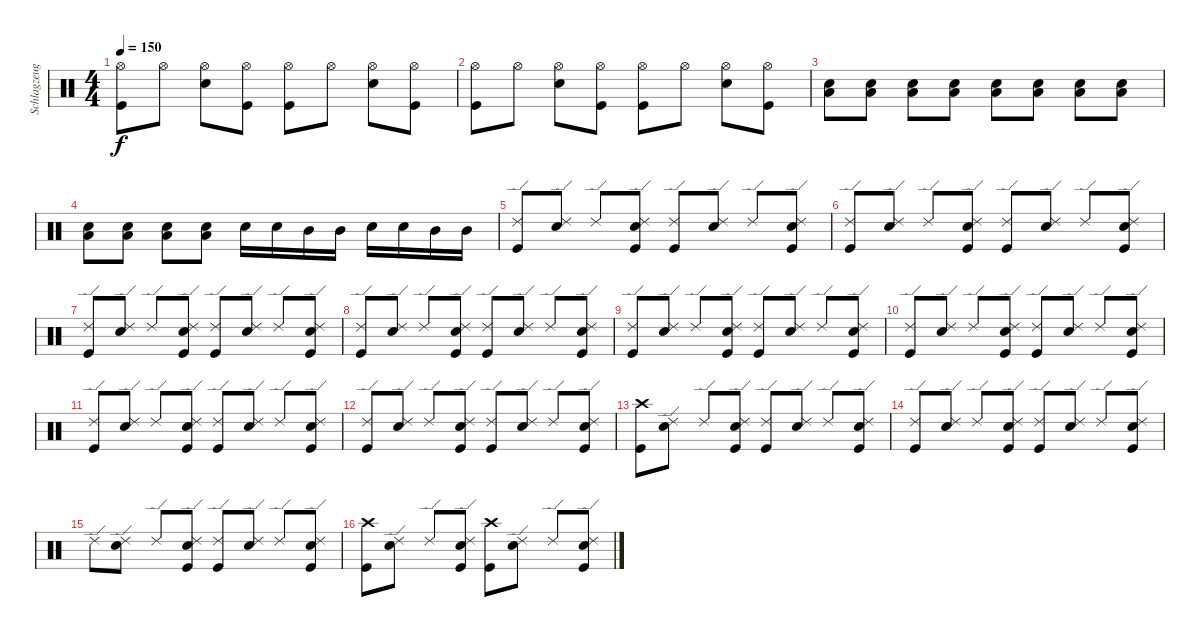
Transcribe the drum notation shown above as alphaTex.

\track ("Schlagzeug" "Schlagzeug") {instrument percussion}
\staff {score}
\articulation defaults
\ts (4 4)
\tempo 150
\clef neutral
\ks c
("Hi-Hat (open)" "Kick (hit)").8{dy f} "Hi-Hat (open)".8 ("Hi-Hat (open)" "Electric Snare (hit)").8 ("Hi-Hat (open)" "Kick (hit)").8 ("Hi-Hat (open)" "Kick (hit)").8 "Hi-Hat (open)".8 ("Hi-Hat (open)" "Electric Snare (hit)").8 ("Hi-Hat (open)" "Kick (hit)").8 |
("Hi-Hat (open)" "Kick (hit)").8 "Hi-Hat (open)".8 ("Hi-Hat (open)" "Electric Snare (hit)").8 ("Hi-Hat (open)" "Kick (hit)").8 ("Hi-Hat (open)" "Kick (hit)").8 "Hi-Hat (open)".8 ("Hi-Hat (open)" "Electric Snare (hit)").8 ("Hi-Hat (open)" "Kick (hit)").8 |
("Snare (hit) 2" "Low Tom (hit)").8 ("Snare (hit) 2" "Low Tom (hit)").8 ("Snare (hit) 2" "Low Tom (hit)").8 ("Snare (hit) 2" "Low Tom (hit)").8 ("Snare (hit) 2" "Low Tom (hit)").8 ("Snare (hit) 2" "Low Tom (hit)").8 ("Snare (hit) 2" "Low Tom (hit)").8 ("Snare (hit) 2" "Low Tom (hit)").8 |
("Snare (hit) 2" "Low Tom (hit)").8 ("Snare (hit) 2" "Low Tom (hit)").8 ("Snare (hit) 2" "Low Tom (hit)").8 ("Snare (hit) 2" "Low Tom (hit)").8 "Snare (hit) 2".16 "Snare (hit) 2".16 "Mid Tom (hit)".16 "Mid Tom (hit)".16 "Snare (hit) 2".16 "Snare (hit) 2".16 "Mid Tom (hit)".16 "Mid Tom (hit)".16 |
("Ride (edge) 2" "Kick (hit)").8 ("Ride (edge) 2" "Snare (hit) 2").8 "Ride (edge) 2".8 ("Ride (edge) 2" "Snare (hit) 2" "Kick (hit)").8 ("Ride (edge) 2" "Kick (hit)").8 ("Ride (edge) 2" "Snare (hit) 2").8 "Ride (edge) 2".8 ("Ride (edge) 2" "Snare (hit) 2" "Kick (hit)").8 |
("Ride (edge) 2" "Kick (hit)").8 ("Ride (edge) 2" "Snare (hit) 2").8 "Ride (edge) 2".8 ("Ride (edge) 2" "Snare (hit) 2" "Kick (hit)").8 ("Ride (edge) 2" "Kick (hit)").8 ("Ride (edge) 2" "Snare (hit) 2").8 "Ride (edge) 2".8 ("Ride (edge) 2" "Snare (hit) 2" "Kick (hit)").8 |
("Ride (edge) 2" "Kick (hit)").8 ("Ride (edge) 2" "Snare (hit) 2").8 "Ride (edge) 2".8 ("Ride (edge) 2" "Snare (hit) 2" "Kick (hit)").8 ("Ride (edge) 2" "Kick (hit)").8 ("Ride (edge) 2" "Snare (hit) 2").8 "Ride (edge) 2".8 ("Ride (edge) 2" "Snare (hit) 2" "Kick (hit)").8 |
("Ride (edge) 2" "Kick (hit)").8 ("Ride (edge) 2" "Snare (hit) 2").8 "Ride (edge) 2".8 ("Ride (edge) 2" "Snare (hit) 2" "Kick (hit)").8 ("Ride (edge) 2" "Kick (hit)").8 ("Ride (edge) 2" "Snare (hit) 2").8 "Ride (edge) 2".8 ("Ride (edge) 2" "Snare (hit) 2" "Kick (hit)").8 |
("Ride (edge) 2" "Kick (hit)").8 ("Ride (edge) 2" "Snare (hit) 2").8 "Ride (edge) 2".8 ("Ride (edge) 2" "Snare (hit) 2" "Kick (hit)").8 ("Ride (edge) 2" "Kick (hit)").8 ("Ride (edge) 2" "Snare (hit) 2").8 "Ride (edge) 2".8 ("Ride (edge) 2" "Snare (hit) 2" "Kick (hit)").8 |
("Ride (edge) 2" "Kick (hit)").8 ("Ride (edge) 2" "Snare (hit) 2").8 "Ride (edge) 2".8 ("Ride (edge) 2" "Snare (hit) 2" "Kick (hit)").8 ("Ride (edge) 2" "Kick (hit)").8 ("Ride (edge) 2" "Snare (hit) 2").8 "Ride (edge) 2".8 ("Ride (edge) 2" "Snare (hit) 2" "Kick (hit)").8 |
("Ride (edge) 2" "Kick (hit)").8 ("Ride (edge) 2" "Snare (hit) 2").8 "Ride (edge) 2".8 ("Ride (edge) 2" "Snare (hit) 2" "Kick (hit)").8 ("Ride (edge) 2" "Kick (hit)").8 ("Ride (edge) 2" "Snare (hit) 2").8 "Ride (edge) 2".8 ("Ride (edge) 2" "Snare (hit) 2" "Kick (hit)").8 |
("Ride (edge) 2" "Kick (hit)").8 ("Ride (edge) 2" "Snare (hit) 2").8 "Ride (edge) 2".8 ("Ride (edge) 2" "Snare (hit) 2" "Kick (hit)").8 ("Ride (edge) 2" "Kick (hit)").8 ("Ride (edge) 2" "Snare (hit) 2").8 "Ride (edge) 2".8 ("Ride (edge) 2" "Snare (hit) 2" "Kick (hit)").8 |
("Crash high (hit)" "Kick (hit)").8 ("Ride (edge) 2" "Snare (hit) 2").8 "Ride (edge) 2".8 ("Ride (edge) 2" "Snare (hit) 2" "Kick (hit)").8 ("Ride (edge) 2" "Kick (hit)").8 ("Ride (edge) 2" "Snare (hit) 2").8 "Ride (edge) 2".8 ("Ride (edge) 2" "Snare (hit) 2" "Kick (hit)").8 |
("Ride (edge) 2" "Kick (hit)").8 ("Ride (edge) 2" "Snare (hit) 2").8 "Ride (edge) 2".8 ("Ride (edge) 2" "Snare (hit) 2" "Kick (hit)").8 ("Ride (edge) 2" "Kick (hit)").8 ("Ride (edge) 2" "Snare (hit) 2").8 "Ride (edge) 2".8 ("Ride (edge) 2" "Snare (hit) 2" "Kick (hit)").8 |
"Ride (edge) 2".8 ("Ride (edge) 2" "Snare (hit) 2").8 "Ride (edge) 2".8 ("Ride (edge) 2" "Snare (hit) 2" "Kick (hit)").8 ("Ride (edge) 2" "Kick (hit)").8 ("Ride (edge) 2" "Snare (hit) 2").8 "Ride (edge) 2".8 ("Ride (edge) 2" "Snare (hit) 2" "Kick (hit)").8 |
("Crash high (hit)" "Kick (hit)").8 ("Ride (edge) 2" "Snare (hit) 2").8 "Ride (edge) 2".8 ("Ride (edge) 2" "Snare (hit) 2" "Kick (hit)").8 ("Crash high (hit)" "Kick (hit)").8 ("Ride (edge) 2" "Snare (hit) 2").8 "Ride (edge) 2".8 ("Ride (edge) 2" "Snare (hit) 2" "Kick (hit)").8
